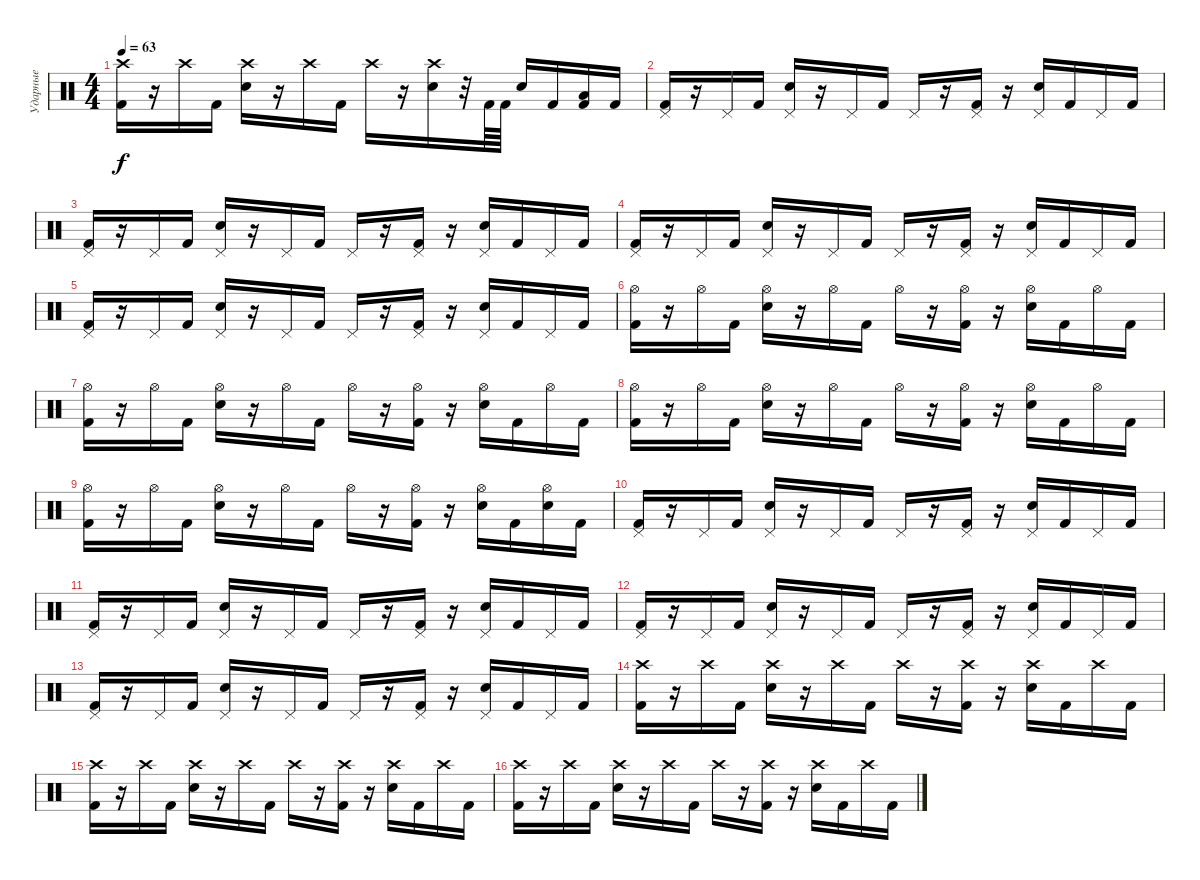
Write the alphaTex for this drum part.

\track ("Ударные" "Ударные") {instrument percussion}
\staff {score}
\articulation defaults
\ts (4 4)
\tempo 63
\clef neutral
\ks c
("Crash high (hit)" "Kick (hit) 2").16{dy f} r.16 "Crash high (hit)".16 "Kick (hit) 2".16 ("Crash high (hit)" "Electric Snare (hit)").16 r.16 "Crash high (hit)".16 "Kick (hit) 2".16 "Crash high (hit)".16 r.16 ("Crash high (hit)" "Electric Snare (hit)").16 r.32 "Kick (hit) 2".64 "Kick (hit) 2".64 "Electric Snare (hit)".16 "Kick (hit) 2".16 ("Low Floor Tom (hit)" "Kick (hit) 2").16 "Kick (hit) 2".16 |
("Pedal Hi-Hat (hit)" "Kick (hit) 2").16 r.16 "Pedal Hi-Hat (hit)".16 "Kick (hit) 2".16 ("Pedal Hi-Hat (hit)" "Electric Snare (hit)").16 r.16 "Pedal Hi-Hat (hit)".16 "Kick (hit) 2".16 "Pedal Hi-Hat (hit)".16 r.16 ("Pedal Hi-Hat (hit)" "Kick (hit) 2").16 r.16 ("Pedal Hi-Hat (hit)" "Electric Snare (hit)").16 "Kick (hit) 2".16 "Pedal Hi-Hat (hit)".16 "Kick (hit) 2".16 |
("Pedal Hi-Hat (hit)" "Kick (hit) 2").16 r.16 "Pedal Hi-Hat (hit)".16 "Kick (hit) 2".16 ("Pedal Hi-Hat (hit)" "Electric Snare (hit)").16 r.16 "Pedal Hi-Hat (hit)".16 "Kick (hit) 2".16 "Pedal Hi-Hat (hit)".16 r.16 ("Pedal Hi-Hat (hit)" "Kick (hit) 2").16 r.16 ("Pedal Hi-Hat (hit)" "Electric Snare (hit)").16 "Kick (hit) 2".16 "Pedal Hi-Hat (hit)".16 "Kick (hit) 2".16 |
("Pedal Hi-Hat (hit)" "Kick (hit) 2").16 r.16 "Pedal Hi-Hat (hit)".16 "Kick (hit) 2".16 ("Pedal Hi-Hat (hit)" "Electric Snare (hit)").16 r.16 "Pedal Hi-Hat (hit)".16 "Kick (hit) 2".16 "Pedal Hi-Hat (hit)".16 r.16 ("Pedal Hi-Hat (hit)" "Kick (hit) 2").16 r.16 ("Pedal Hi-Hat (hit)" "Electric Snare (hit)").16 "Kick (hit) 2".16 "Pedal Hi-Hat (hit)".16 "Kick (hit) 2".16 |
("Pedal Hi-Hat (hit)" "Kick (hit) 2").16 r.16 "Pedal Hi-Hat (hit)".16 "Kick (hit) 2".16 ("Pedal Hi-Hat (hit)" "Electric Snare (hit)").16 r.16 "Pedal Hi-Hat (hit)".16 "Kick (hit) 2".16 "Pedal Hi-Hat (hit)".16 r.16 ("Pedal Hi-Hat (hit)" "Kick (hit) 2").16 r.16 ("Pedal Hi-Hat (hit)" "Electric Snare (hit)").16 "Kick (hit) 2".16 "Pedal Hi-Hat (hit)".16 "Kick (hit) 2".16 |
("Hi-Hat (open)" "Kick (hit) 2").16 r.16 "Hi-Hat (open)".16 "Kick (hit) 2".16 ("Hi-Hat (open)" "Electric Snare (hit)").16 r.16 "Hi-Hat (open)".16 "Kick (hit) 2".16 "Hi-Hat (open)".16 r.16 ("Hi-Hat (open)" "Kick (hit) 2").16 r.16 ("Hi-Hat (open)" "Electric Snare (hit)").16 "Kick (hit) 2".16 "Hi-Hat (open)".16 "Kick (hit) 2".16 |
("Hi-Hat (open)" "Kick (hit) 2").16 r.16 "Hi-Hat (open)".16 "Kick (hit) 2".16 ("Hi-Hat (open)" "Electric Snare (hit)").16 r.16 "Hi-Hat (open)".16 "Kick (hit) 2".16 "Hi-Hat (open)".16 r.16 ("Hi-Hat (open)" "Kick (hit) 2").16 r.16 ("Hi-Hat (open)" "Electric Snare (hit)").16 "Kick (hit) 2".16 "Hi-Hat (open)".16 "Kick (hit) 2".16 |
("Hi-Hat (open)" "Kick (hit) 2").16 r.16 "Hi-Hat (open)".16 "Kick (hit) 2".16 ("Hi-Hat (open)" "Electric Snare (hit)").16 r.16 "Hi-Hat (open)".16 "Kick (hit) 2".16 "Hi-Hat (open)".16 r.16 ("Hi-Hat (open)" "Kick (hit) 2").16 r.16 ("Hi-Hat (open)" "Electric Snare (hit)").16 "Kick (hit) 2".16 "Hi-Hat (open)".16 "Kick (hit) 2".16 |
("Hi-Hat (open)" "Kick (hit) 2").16 r.16 "Hi-Hat (open)".16 "Kick (hit) 2".16 ("Hi-Hat (open)" "Electric Snare (hit)").16 r.16 "Hi-Hat (open)".16 "Kick (hit) 2".16 "Hi-Hat (open)".16 r.16 ("Hi-Hat (open)" "Kick (hit) 2").16 r.16 ("Hi-Hat (open)" "Electric Snare (hit)").16 "Kick (hit) 2".16 ("Hi-Hat (open)" "Electric Snare (hit)").16 "Kick (hit) 2".16 |
("Pedal Hi-Hat (hit)" "Kick (hit) 2").16 r.16 "Pedal Hi-Hat (hit)".16 "Kick (hit) 2".16 ("Pedal Hi-Hat (hit)" "Electric Snare (hit)").16 r.16 "Pedal Hi-Hat (hit)".16 "Kick (hit) 2".16 "Pedal Hi-Hat (hit)".16 r.16 ("Pedal Hi-Hat (hit)" "Kick (hit) 2").16 r.16 ("Pedal Hi-Hat (hit)" "Electric Snare (hit)").16 "Kick (hit) 2".16 "Pedal Hi-Hat (hit)".16 "Kick (hit) 2".16 |
("Pedal Hi-Hat (hit)" "Kick (hit) 2").16 r.16 "Pedal Hi-Hat (hit)".16 "Kick (hit) 2".16 ("Pedal Hi-Hat (hit)" "Electric Snare (hit)").16 r.16 "Pedal Hi-Hat (hit)".16 "Kick (hit) 2".16 "Pedal Hi-Hat (hit)".16 r.16 ("Pedal Hi-Hat (hit)" "Kick (hit) 2").16 r.16 ("Pedal Hi-Hat (hit)" "Electric Snare (hit)").16 "Kick (hit) 2".16 "Pedal Hi-Hat (hit)".16 "Kick (hit) 2".16 |
("Pedal Hi-Hat (hit)" "Kick (hit) 2").16 r.16 "Pedal Hi-Hat (hit)".16 "Kick (hit) 2".16 ("Pedal Hi-Hat (hit)" "Electric Snare (hit)").16 r.16 "Pedal Hi-Hat (hit)".16 "Kick (hit) 2".16 "Pedal Hi-Hat (hit)".16 r.16 ("Pedal Hi-Hat (hit)" "Kick (hit) 2").16 r.16 ("Pedal Hi-Hat (hit)" "Electric Snare (hit)").16 "Kick (hit) 2".16 "Pedal Hi-Hat (hit)".16 "Kick (hit) 2".16 |
("Pedal Hi-Hat (hit)" "Kick (hit) 2").16 r.16 "Pedal Hi-Hat (hit)".16 "Kick (hit) 2".16 ("Pedal Hi-Hat (hit)" "Electric Snare (hit)").16 r.16 "Pedal Hi-Hat (hit)".16 "Kick (hit) 2".16 "Pedal Hi-Hat (hit)".16 r.16 ("Pedal Hi-Hat (hit)" "Kick (hit) 2").16 r.16 ("Pedal Hi-Hat (hit)" "Electric Snare (hit)").16 "Kick (hit) 2".16 "Pedal Hi-Hat (hit)".16 "Kick (hit) 2".16 |
("Crash high (hit)" "Kick (hit) 2").16 r.16 "Crash high (hit)".16 "Kick (hit) 2".16 ("Crash high (hit)" "Electric Snare (hit)").16 r.16 "Crash high (hit)".16 "Kick (hit) 2".16 "Crash high (hit)".16 r.16 ("Crash high (hit)" "Kick (hit) 2").16 r.16 ("Crash high (hit)" "Electric Snare (hit)").16 "Kick (hit) 2".16 "Crash high (hit)".16 "Kick (hit) 2".16 |
("Crash high (hit)" "Kick (hit) 2").16 r.16 "Crash high (hit)".16 "Kick (hit) 2".16 ("Crash high (hit)" "Electric Snare (hit)").16 r.16 "Crash high (hit)".16 "Kick (hit) 2".16 "Crash high (hit)".16 r.16 ("Crash high (hit)" "Kick (hit) 2").16 r.16 ("Crash high (hit)" "Electric Snare (hit)").16 "Kick (hit) 2".16 "Crash high (hit)".16 "Kick (hit) 2".16 |
("Crash high (hit)" "Kick (hit) 2").16 r.16 "Crash high (hit)".16 "Kick (hit) 2".16 ("Crash high (hit)" "Electric Snare (hit)").16 r.16 "Crash high (hit)".16 "Kick (hit) 2".16 "Crash high (hit)".16 r.16 ("Crash high (hit)" "Kick (hit) 2").16 r.16 ("Crash high (hit)" "Electric Snare (hit)").16 "Kick (hit) 2".16 "Crash high (hit)".16 "Kick (hit) 2".16
